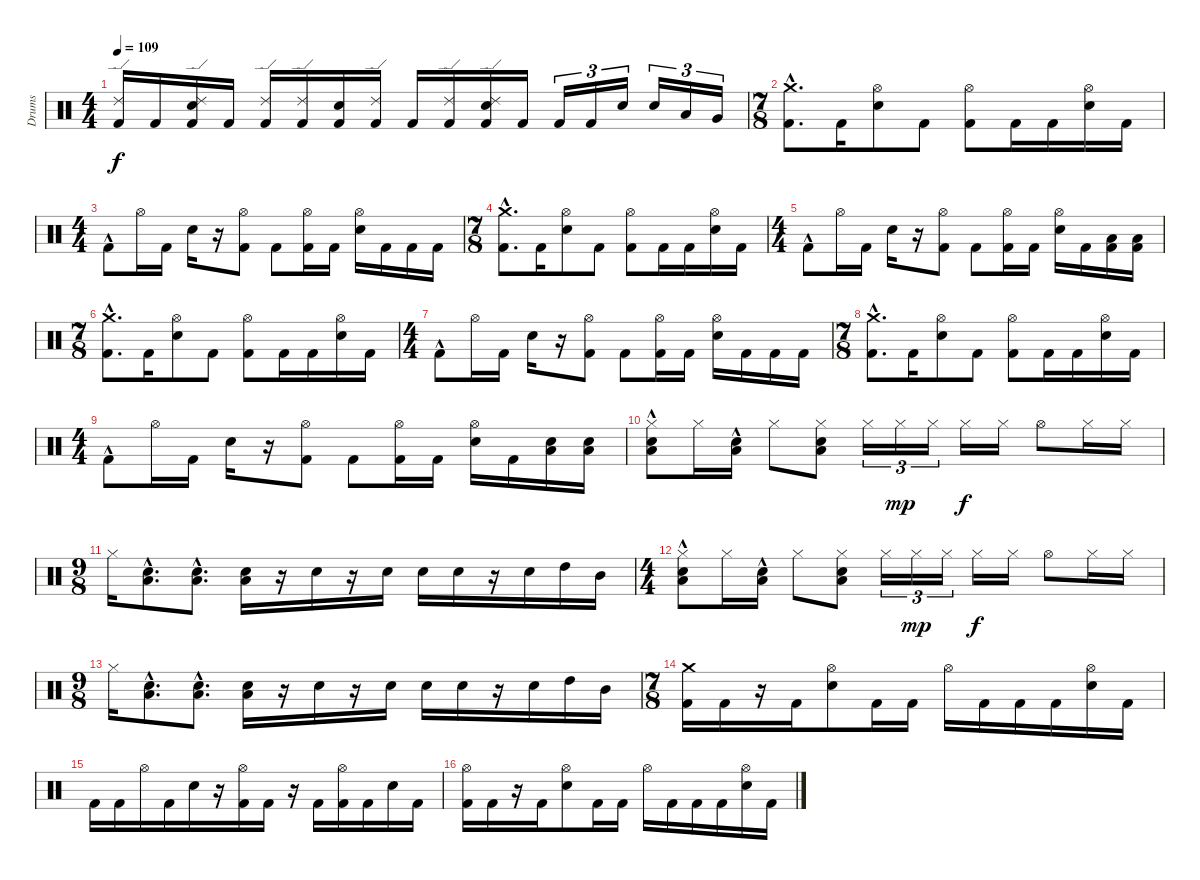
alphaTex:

\track ("Drums" "Drums") {instrument percussion}
\staff {score}
\articulation defaults
\ts (4 4)
\tempo 109
\clef neutral
\ks c
("Ride (edge) 2" "Kick (hit) 2").16{dy f} "Kick (hit) 2".16 ("Electric Snare (hit)" "Kick (hit) 2" "Ride (edge) 2").16 "Kick (hit) 2".16 ("Kick (hit) 2" "Ride (edge) 2").16 ("Kick (hit) 2" "Ride (edge) 2").16 ("Electric Snare (hit)" "Kick (hit) 2").16 ("Kick (hit) 2" "Ride (edge) 2").16 "Kick (hit) 2".16 ("Kick (hit) 2" "Ride (edge) 2").16 ("Electric Snare (hit)" "Kick (hit) 2" "Ride (edge) 2").16 "Kick (hit) 2".16 "Kick (hit) 2".16{tu (3 2)} "Kick (hit) 2".16{tu (3 2)} "Electric Snare (hit)".16{tu (3 2)} "Electric Snare (hit)".16{tu (3 2)} "Low Tom (hit)".16{tu (3 2)} "Very Low Tom (hit)".16{tu (3 2)} |
\ts (7 8)
("Kick (hit) 2"{hac} "Crash medium (hit)").8{d} "Kick (hit) 2".16 ("Electric Snare (hit)" "Hi-Hat (open)").8 "Kick (hit) 2".8 ("Kick (hit) 2" "Hi-Hat (open)").8 "Kick (hit) 2".16 "Kick (hit) 2".16 ("Electric Snare (hit)" "Hi-Hat (open)").16 "Kick (hit) 2".16 |
\ts (4 4)
"Kick (hit) 2"{hac}.8 "Hi-Hat (open)".16 "Kick (hit) 2".16 "Electric Snare (hit)".16 r.16 ("Kick (hit) 2" "Hi-Hat (open)").8 "Kick (hit) 2".8 ("Kick (hit) 2" "Hi-Hat (open)").16 "Kick (hit) 2".16 ("Hi-Hat (open)" "Electric Snare (hit)").16 "Kick (hit) 2".16 "Kick (hit) 2".16 "Kick (hit) 2".16 |
\ts (7 8)
("Kick (hit) 2"{hac} "Crash medium (hit)").8{d} "Kick (hit) 2".16 ("Electric Snare (hit)" "Hi-Hat (open)").8 "Kick (hit) 2".8 ("Kick (hit) 2" "Hi-Hat (open)").8 "Kick (hit) 2".16 "Kick (hit) 2".16 ("Electric Snare (hit)" "Hi-Hat (open)").16 "Kick (hit) 2".16 |
\ts (4 4)
"Kick (hit) 2"{hac}.8 "Hi-Hat (open)".16 "Kick (hit) 2".16 "Electric Snare (hit)".16 r.16 ("Kick (hit) 2" "Hi-Hat (open)").8 "Kick (hit) 2".8 ("Kick (hit) 2" "Hi-Hat (open)").16 "Kick (hit) 2".16 ("Hi-Hat (open)" "Electric Snare (hit)").16 "Kick (hit) 2".16 ("Low Floor Tom (hit)" "Kick (hit) 2").16 ("Low Floor Tom (hit)" "Kick (hit) 2").16 |
\ts (7 8)
("Kick (hit) 2"{hac} "Crash medium (hit)").8{d} "Kick (hit) 2".16 ("Electric Snare (hit)" "Hi-Hat (open)").8 "Kick (hit) 2".8 ("Kick (hit) 2" "Hi-Hat (open)").8 "Kick (hit) 2".16 "Kick (hit) 2".16 ("Electric Snare (hit)" "Hi-Hat (open)").16 "Kick (hit) 2".16 |
\ts (4 4)
"Kick (hit) 2"{hac}.8 "Hi-Hat (open)".16 "Kick (hit) 2".16 "Electric Snare (hit)".16 r.16 ("Kick (hit) 2" "Hi-Hat (open)").8 "Kick (hit) 2".8 ("Kick (hit) 2" "Hi-Hat (open)").16 "Kick (hit) 2".16 ("Hi-Hat (open)" "Electric Snare (hit)").16 "Kick (hit) 2".16 "Kick (hit) 2".16 "Kick (hit) 2".16 |
\ts (7 8)
("Kick (hit) 2"{hac} "Crash medium (hit)").8{d} "Kick (hit) 2".16 ("Electric Snare (hit)" "Hi-Hat (open)").8 "Kick (hit) 2".8 ("Kick (hit) 2" "Hi-Hat (open)").8 "Kick (hit) 2".16 "Kick (hit) 2".16 ("Electric Snare (hit)" "Hi-Hat (open)").16 "Kick (hit) 2".16 |
\ts (4 4)
"Kick (hit) 2"{hac}.8 "Hi-Hat (open)".16 "Kick (hit) 2".16 "Electric Snare (hit)".16 r.16 ("Kick (hit) 2" "Hi-Hat (open)").8 "Kick (hit) 2".8 ("Kick (hit) 2" "Hi-Hat (open)").16 "Kick (hit) 2".16 ("Hi-Hat (open)" "Electric Snare (hit)").16 "Kick (hit) 2".16 ("Electric Snare (hit)" "Low Floor Tom (hit)").16 ("Electric Snare (hit)" "Low Floor Tom (hit)").16 |
("Low Floor Tom (hit)"{hac} "Electric Snare (hit)"{hac} "Hi-Hat (closed)").8{volume 16 balance 8} "Hi-Hat (closed)".16 ("Low Floor Tom (hit)"{hac} "Electric Snare (hit)"{hac}).16 "Hi-Hat (closed)".8 ("Low Floor Tom (hit)" "Electric Snare (hit)" "Hi-Hat (closed)").8 "Hi-Hat (closed)".16{tu (3 2)} "Hi-Hat (closed)".16{tu (3 2) dy mp} "Hi-Hat (closed)".16{tu (3 2)} "Hi-Hat (closed)".16{dy f} "Hi-Hat (closed)".16 "Hi-Hat (open)".8 "Hi-Hat (closed)".16 "Hi-Hat (closed)".16 |
\ts (9 8)
"Hi-Hat (closed)".16 ("Low Floor Tom (hit)"{hac} "Electric Snare (hit)"{hac}).8{d} ("Low Floor Tom (hit)"{hac} "Electric Snare (hit)"{hac}).8{d} ("Low Floor Tom (hit)" "Electric Snare (hit)").16 r.16 "Electric Snare (hit)".16 r.16 "Electric Snare (hit)".16 "Electric Snare (hit)".16 "Electric Snare (hit)".16 r.16 "Electric Snare (hit)".16 "High Tom (hit)".16 "Mid Tom (hit)".16 |
\ts (4 4)
("Low Floor Tom (hit)"{hac} "Electric Snare (hit)"{hac} "Hi-Hat (closed)").8 "Hi-Hat (closed)".16 ("Low Floor Tom (hit)"{hac} "Electric Snare (hit)"{hac}).16 "Hi-Hat (closed)".8 ("Low Floor Tom (hit)" "Electric Snare (hit)" "Hi-Hat (closed)").8 "Hi-Hat (closed)".16{tu (3 2)} "Hi-Hat (closed)".16{tu (3 2) dy mp} "Hi-Hat (closed)".16{tu (3 2)} "Hi-Hat (closed)".16{dy f} "Hi-Hat (closed)".16 "Hi-Hat (open)".8 "Hi-Hat (closed)".16 "Hi-Hat (closed)".16 |
\ts (9 8)
"Hi-Hat (closed)".16 ("Low Floor Tom (hit)"{hac} "Electric Snare (hit)"{hac}).8{d} ("Low Floor Tom (hit)"{hac} "Electric Snare (hit)"{hac}).8{d} ("Low Floor Tom (hit)" "Electric Snare (hit)").16 r.16 "Electric Snare (hit)".16 r.16 "Electric Snare (hit)".16 "Electric Snare (hit)".16 "Electric Snare (hit)".16 r.16 "Electric Snare (hit)".16 "High Tom (hit)".16 "Mid Tom (hit)".16 |
\ts (7 8)
("Crash medium (hit)" "Kick (hit) 2").16 "Kick (hit) 2".16 r.16 "Kick (hit) 2".16 ("Hi-Hat (open)" "Electric Snare (hit)").8 "Kick (hit) 2".16 "Kick (hit) 2".16 "Hi-Hat (open)".16 "Kick (hit) 2".16 "Kick (hit) 2".16 "Kick (hit) 2".16 ("Hi-Hat (open)" "Electric Snare (hit)").16 "Kick (hit) 2".16 |
"Kick (hit) 2".16 "Kick (hit) 2".16 "Hi-Hat (open)".16 "Kick (hit) 2".16 "Electric Snare (hit)".16 r.16 ("Kick (hit) 2" "Hi-Hat (open)").16 "Kick (hit) 2".16 r.16 "Kick (hit) 2".16 ("Kick (hit) 2" "Hi-Hat (open)").16 "Kick (hit) 2".16 "Electric Snare (hit)".16 "Kick (hit) 2".16 |
("Hi-Hat (open)" "Kick (hit) 2").16 "Kick (hit) 2".16 r.16 "Kick (hit) 2".16 ("Hi-Hat (open)" "Electric Snare (hit)").8 "Kick (hit) 2".16 "Kick (hit) 2".16 "Hi-Hat (open)".16 "Kick (hit) 2".16 "Kick (hit) 2".16 "Kick (hit) 2".16 ("Hi-Hat (open)" "Electric Snare (hit)").16 "Kick (hit) 2".16
